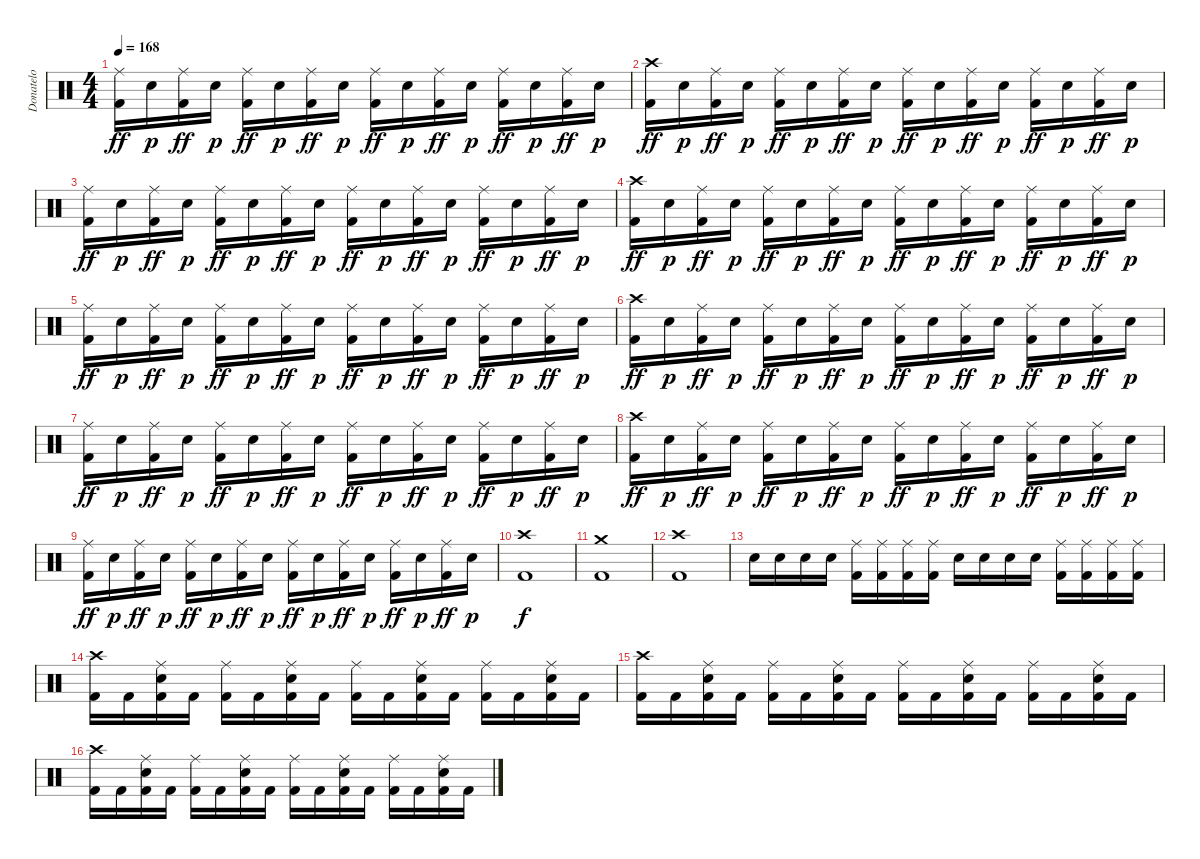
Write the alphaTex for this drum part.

\track ("Donatelo" "Donatelo") {instrument percussion}
\staff {score}
\articulation defaults
\ts (4 4)
\tempo 168
\clef neutral
\ks c
("Kick (hit) 2" "Ride (middle)").16{dy ff} "Electric Snare (hit)".16{dy p} ("Kick (hit) 2" "Ride (middle)").16{dy ff} "Electric Snare (hit)".16{dy p} ("Kick (hit) 2" "Ride (middle)").16{dy ff} "Electric Snare (hit)".16{dy p} ("Kick (hit) 2" "Ride (middle)").16{dy ff} "Electric Snare (hit)".16{dy p} ("Kick (hit) 2" "Ride (middle)").16{dy ff} "Electric Snare (hit)".16{dy p} ("Kick (hit) 2" "Ride (middle)").16{dy ff} "Electric Snare (hit)".16{dy p} ("Kick (hit) 2" "Ride (middle)").16{dy ff} "Electric Snare (hit)".16{dy p} ("Kick (hit) 2" "Ride (middle)").16{dy ff} "Electric Snare (hit)".16{dy p} |
("Kick (hit) 2" "Crash high (hit)").16{dy ff} "Electric Snare (hit)".16{dy p} ("Kick (hit) 2" "Ride (middle)").16{dy ff} "Electric Snare (hit)".16{dy p} ("Kick (hit) 2" "Ride (middle)").16{dy ff} "Electric Snare (hit)".16{dy p} ("Kick (hit) 2" "Ride (middle)").16{dy ff} "Electric Snare (hit)".16{dy p} ("Kick (hit) 2" "Ride (middle)").16{dy ff} "Electric Snare (hit)".16{dy p} ("Kick (hit) 2" "Ride (middle)").16{dy ff} "Electric Snare (hit)".16{dy p} ("Kick (hit) 2" "Ride (middle)").16{dy ff} "Electric Snare (hit)".16{dy p} ("Kick (hit) 2" "Ride (middle)").16{dy ff} "Electric Snare (hit)".16{dy p} |
("Kick (hit) 2" "Ride (middle)").16{dy ff} "Electric Snare (hit)".16{dy p} ("Kick (hit) 2" "Ride (middle)").16{dy ff} "Electric Snare (hit)".16{dy p} ("Kick (hit) 2" "Ride (middle)").16{dy ff} "Electric Snare (hit)".16{dy p} ("Kick (hit) 2" "Ride (middle)").16{dy ff} "Electric Snare (hit)".16{dy p} ("Kick (hit) 2" "Ride (middle)").16{dy ff} "Electric Snare (hit)".16{dy p} ("Kick (hit) 2" "Ride (middle)").16{dy ff} "Electric Snare (hit)".16{dy p} ("Kick (hit) 2" "Ride (middle)").16{dy ff} "Electric Snare (hit)".16{dy p} ("Kick (hit) 2" "Ride (middle)").16{dy ff} "Electric Snare (hit)".16{dy p} |
("Kick (hit) 2" "Crash high (hit)").16{dy ff} "Electric Snare (hit)".16{dy p} ("Kick (hit) 2" "Ride (middle)").16{dy ff} "Electric Snare (hit)".16{dy p} ("Kick (hit) 2" "Ride (middle)").16{dy ff} "Electric Snare (hit)".16{dy p} ("Kick (hit) 2" "Ride (middle)").16{dy ff} "Electric Snare (hit)".16{dy p} ("Kick (hit) 2" "Ride (middle)").16{dy ff} "Electric Snare (hit)".16{dy p} ("Kick (hit) 2" "Ride (middle)").16{dy ff} "Electric Snare (hit)".16{dy p} ("Kick (hit) 2" "Ride (middle)").16{dy ff} "Electric Snare (hit)".16{dy p} ("Kick (hit) 2" "Ride (middle)").16{dy ff} "Electric Snare (hit)".16{dy p} |
("Kick (hit) 2" "Ride (middle)").16{dy ff} "Electric Snare (hit)".16{dy p} ("Kick (hit) 2" "Ride (middle)").16{dy ff} "Electric Snare (hit)".16{dy p} ("Kick (hit) 2" "Ride (middle)").16{dy ff} "Electric Snare (hit)".16{dy p} ("Kick (hit) 2" "Ride (middle)").16{dy ff} "Electric Snare (hit)".16{dy p} ("Kick (hit) 2" "Ride (middle)").16{dy ff} "Electric Snare (hit)".16{dy p} ("Kick (hit) 2" "Ride (middle)").16{dy ff} "Electric Snare (hit)".16{dy p} ("Kick (hit) 2" "Ride (middle)").16{dy ff} "Electric Snare (hit)".16{dy p} ("Kick (hit) 2" "Ride (middle)").16{dy ff} "Electric Snare (hit)".16{dy p} |
("Kick (hit) 2" "Crash high (hit)").16{dy ff} "Electric Snare (hit)".16{dy p} ("Kick (hit) 2" "Ride (middle)").16{dy ff} "Electric Snare (hit)".16{dy p} ("Kick (hit) 2" "Ride (middle)").16{dy ff} "Electric Snare (hit)".16{dy p} ("Kick (hit) 2" "Ride (middle)").16{dy ff} "Electric Snare (hit)".16{dy p} ("Kick (hit) 2" "Ride (middle)").16{dy ff} "Electric Snare (hit)".16{dy p} ("Kick (hit) 2" "Ride (middle)").16{dy ff} "Electric Snare (hit)".16{dy p} ("Kick (hit) 2" "Ride (middle)").16{dy ff} "Electric Snare (hit)".16{dy p} ("Kick (hit) 2" "Ride (middle)").16{dy ff} "Electric Snare (hit)".16{dy p} |
("Kick (hit) 2" "Ride (middle)").16{dy ff} "Electric Snare (hit)".16{dy p} ("Kick (hit) 2" "Ride (middle)").16{dy ff} "Electric Snare (hit)".16{dy p} ("Kick (hit) 2" "Ride (middle)").16{dy ff} "Electric Snare (hit)".16{dy p} ("Kick (hit) 2" "Ride (middle)").16{dy ff} "Electric Snare (hit)".16{dy p} ("Kick (hit) 2" "Ride (middle)").16{dy ff} "Electric Snare (hit)".16{dy p} ("Kick (hit) 2" "Ride (middle)").16{dy ff} "Electric Snare (hit)".16{dy p} ("Kick (hit) 2" "Ride (middle)").16{dy ff} "Electric Snare (hit)".16{dy p} ("Kick (hit) 2" "Ride (middle)").16{dy ff} "Electric Snare (hit)".16{dy p} |
("Kick (hit) 2" "Crash high (hit)").16{dy ff} "Electric Snare (hit)".16{dy p} ("Kick (hit) 2" "Ride (middle)").16{dy ff} "Electric Snare (hit)".16{dy p} ("Kick (hit) 2" "Ride (middle)").16{dy ff} "Electric Snare (hit)".16{dy p} ("Kick (hit) 2" "Ride (middle)").16{dy ff} "Electric Snare (hit)".16{dy p} ("Kick (hit) 2" "Ride (middle)").16{dy ff} "Electric Snare (hit)".16{dy p} ("Kick (hit) 2" "Ride (middle)").16{dy ff} "Electric Snare (hit)".16{dy p} ("Kick (hit) 2" "Ride (middle)").16{dy ff} "Electric Snare (hit)".16{dy p} ("Kick (hit) 2" "Ride (middle)").16{dy ff} "Electric Snare (hit)".16{dy p} |
("Kick (hit) 2" "Ride (middle)").16{dy ff} "Electric Snare (hit)".16{dy p} ("Kick (hit) 2" "Ride (middle)").16{dy ff} "Electric Snare (hit)".16{dy p} ("Kick (hit) 2" "Ride (middle)").16{dy ff} "Electric Snare (hit)".16{dy p} ("Kick (hit) 2" "Ride (middle)").16{dy ff} "Electric Snare (hit)".16{dy p} ("Kick (hit) 2" "Ride (middle)").16{dy ff} "Electric Snare (hit)".16{dy p} ("Kick (hit) 2" "Ride (middle)").16{dy ff} "Electric Snare (hit)".16{dy p} ("Kick (hit) 2" "Ride (middle)").16{dy ff} "Electric Snare (hit)".16{dy p} ("Kick (hit) 2" "Ride (middle)").16{dy ff} "Electric Snare (hit)".16{dy p} |
("Kick (hit) 2" "Crash high (hit)").1{dy f} |
("Kick (hit) 2" "Crash medium (hit)").1 |
("Kick (hit) 2" "Crash high (hit)").1 |
"Electric Snare (hit)".16 "Electric Snare (hit)".16 "Electric Snare (hit)".16 "Electric Snare (hit)".16 ("Kick (hit) 2" "Ride (middle)").16 ("Kick (hit) 2" "Ride (middle)").16 ("Kick (hit) 2" "Ride (middle)").16 ("Kick (hit) 2" "Ride (middle)").16 "Electric Snare (hit)".16 "Electric Snare (hit)".16 "Electric Snare (hit)".16 "Electric Snare (hit)".16 ("Kick (hit) 2" "Ride (middle)").16 ("Kick (hit) 2" "Ride (middle)").16 ("Kick (hit) 2" "Ride (middle)").16 ("Kick (hit) 2" "Ride (middle)").16 |
("Kick (hit) 2" "Crash high (hit)").16 "Kick (hit) 2".16 ("Kick (hit) 2" "Electric Snare (hit)" "Ride (middle)").16 "Kick (hit) 2".16 ("Kick (hit) 2" "Ride (middle)").16 "Kick (hit) 2".16 ("Kick (hit) 2" "Electric Snare (hit)" "Ride (middle)").16 "Kick (hit) 2".16 ("Kick (hit) 2" "Ride (middle)").16 "Kick (hit) 2".16 ("Kick (hit) 2" "Electric Snare (hit)" "Ride (middle)").16 "Kick (hit) 2".16 ("Kick (hit) 2" "Ride (middle)").16 "Kick (hit) 2".16 ("Kick (hit) 2" "Electric Snare (hit)" "Ride (middle)").16 "Kick (hit) 2".16 |
("Kick (hit) 2" "Crash high (hit)").16 "Kick (hit) 2".16 ("Kick (hit) 2" "Electric Snare (hit)" "Ride (middle)").16 "Kick (hit) 2".16 ("Kick (hit) 2" "Ride (middle)").16 "Kick (hit) 2".16 ("Kick (hit) 2" "Electric Snare (hit)" "Ride (middle)").16 "Kick (hit) 2".16 ("Kick (hit) 2" "Ride (middle)").16 "Kick (hit) 2".16 ("Kick (hit) 2" "Electric Snare (hit)" "Ride (middle)").16 "Kick (hit) 2".16 ("Kick (hit) 2" "Ride (middle)").16 "Kick (hit) 2".16 ("Kick (hit) 2" "Electric Snare (hit)" "Ride (middle)").16 "Kick (hit) 2".16 |
("Kick (hit) 2" "Crash high (hit)").16 "Kick (hit) 2".16 ("Kick (hit) 2" "Electric Snare (hit)" "Ride (middle)").16 "Kick (hit) 2".16 ("Kick (hit) 2" "Ride (middle)").16 "Kick (hit) 2".16 ("Kick (hit) 2" "Electric Snare (hit)" "Ride (middle)").16 "Kick (hit) 2".16 ("Kick (hit) 2" "Ride (middle)").16 "Kick (hit) 2".16 ("Kick (hit) 2" "Electric Snare (hit)" "Ride (middle)").16 "Kick (hit) 2".16 ("Kick (hit) 2" "Ride (middle)").16 "Kick (hit) 2".16 ("Kick (hit) 2" "Electric Snare (hit)" "Ride (middle)").16 "Kick (hit) 2".16
